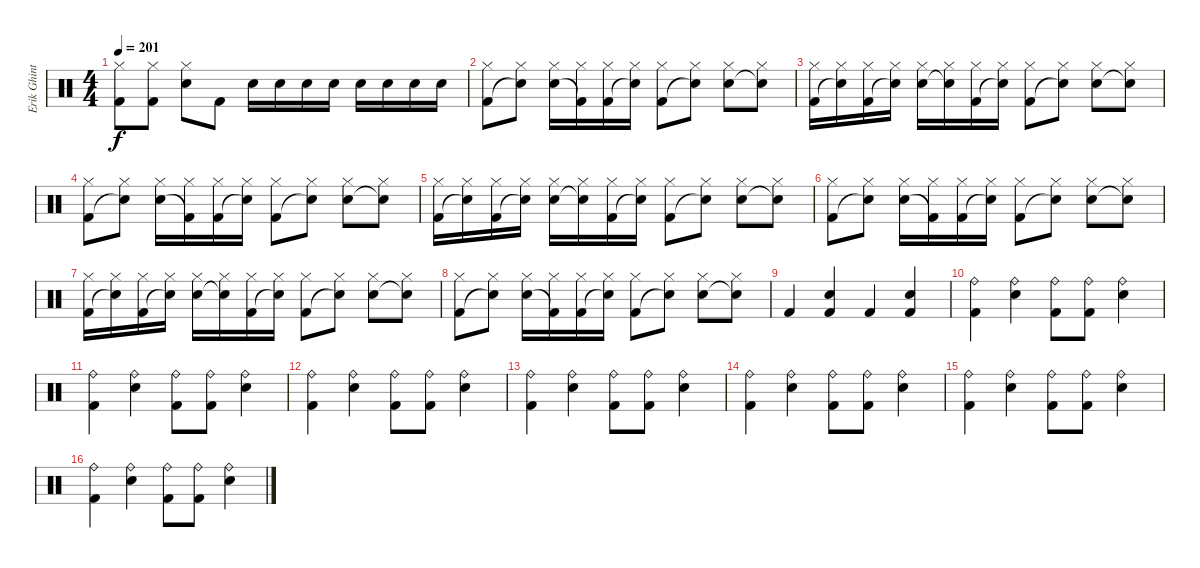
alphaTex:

\track ("Erik Ghint" "Erik Ghint") {instrument percussion}
\staff {score}
\articulation defaults
\ts (4 4)
\tempo 201
\clef neutral
\ks c
("Hi-Hat (closed)" "Kick (hit) 2").8{dy f} ("Hi-Hat (closed)" "Kick (hit) 2").8 ("Hi-Hat (closed)" "Snare (hit) 2").8 "Kick (hit) 2".8 "Snare (hit) 2".16 "Snare (hit) 2".16 "Snare (hit) 2".16 "Snare (hit) 2".16 "Snare (hit) 2".16 "Snare (hit) 2".16 "Snare (hit) 2".16 "Snare (hit) 2".16 |
("Hi-Hat (closed)" "Kick (hit) 2").8 ("Hi-Hat (closed)" "Snare (hit) 2"{t}).8 ("Hi-Hat (closed)" "Snare (hit) 2").16 ("Hi-Hat (closed)" "Kick (hit) 2"{t}).16 ("Hi-Hat (closed)" "Kick (hit) 2").16 ("Hi-Hat (closed)" "Snare (hit)"{t}).16 ("Hi-Hat (closed)" "Kick (hit) 2").8 ("Hi-Hat (closed)" "Snare (hit)"{t}).8 ("Hi-Hat (closed)" "Snare (hit) 2").8 ("Hi-Hat (closed)" "Snare (hit)"{t}).8 |
("Hi-Hat (closed)" "Kick (hit) 2").16 ("Hi-Hat (closed)" "Snare (hit)"{t}).16 ("Hi-Hat (closed)" "Kick (hit) 2").16 ("Hi-Hat (closed)" "Snare (hit)"{t}).16 ("Hi-Hat (closed)" "Snare (hit) 2").16 ("Hi-Hat (closed)" "Snare (hit)"{t}).16 ("Hi-Hat (closed)" "Kick (hit) 2").16 ("Hi-Hat (closed)" "Snare (hit)"{t}).16 ("Hi-Hat (closed)" "Kick (hit) 2").8 ("Hi-Hat (closed)" "Snare (hit)"{t}).8 ("Hi-Hat (closed)" "Snare (hit) 2").8 ("Hi-Hat (closed)" "Snare (hit)"{t}).8 |
("Hi-Hat (closed)" "Kick (hit) 2").8 ("Hi-Hat (closed)" "Snare (hit) 2"{t}).8 ("Hi-Hat (closed)" "Snare (hit) 2").16 ("Hi-Hat (closed)" "Kick (hit) 2"{t}).16 ("Hi-Hat (closed)" "Kick (hit) 2").16 ("Hi-Hat (closed)" "Snare (hit)"{t}).16 ("Hi-Hat (closed)" "Kick (hit) 2").8 ("Hi-Hat (closed)" "Snare (hit)"{t}).8 ("Hi-Hat (closed)" "Snare (hit) 2").8 ("Hi-Hat (closed)" "Snare (hit)"{t}).8 |
("Hi-Hat (closed)" "Kick (hit) 2").16 ("Hi-Hat (closed)" "Snare (hit)"{t}).16 ("Hi-Hat (closed)" "Kick (hit) 2").16 ("Hi-Hat (closed)" "Snare (hit)"{t}).16 ("Hi-Hat (closed)" "Snare (hit) 2").16 ("Hi-Hat (closed)" "Snare (hit)"{t}).16 ("Hi-Hat (closed)" "Kick (hit) 2").16 ("Hi-Hat (closed)" "Snare (hit)"{t}).16 ("Hi-Hat (closed)" "Kick (hit) 2").8 ("Hi-Hat (closed)" "Snare (hit)"{t}).8 ("Hi-Hat (closed)" "Snare (hit) 2").8 ("Hi-Hat (closed)" "Snare (hit)"{t}).8 |
("Hi-Hat (closed)" "Kick (hit) 2").8 ("Hi-Hat (closed)" "Snare (hit) 2"{t}).8 ("Hi-Hat (closed)" "Snare (hit) 2").16 ("Hi-Hat (closed)" "Kick (hit) 2"{t}).16 ("Hi-Hat (closed)" "Kick (hit) 2").16 ("Hi-Hat (closed)" "Snare (hit)"{t}).16 ("Hi-Hat (closed)" "Kick (hit) 2").8 ("Hi-Hat (closed)" "Snare (hit)"{t}).8 ("Hi-Hat (closed)" "Snare (hit) 2").8 ("Hi-Hat (closed)" "Snare (hit)"{t}).8 |
("Hi-Hat (closed)" "Kick (hit) 2").16 ("Hi-Hat (closed)" "Snare (hit)"{t}).16 ("Hi-Hat (closed)" "Kick (hit) 2").16 ("Hi-Hat (closed)" "Snare (hit)"{t}).16 ("Hi-Hat (closed)" "Snare (hit) 2").16 ("Hi-Hat (closed)" "Snare (hit)"{t}).16 ("Hi-Hat (closed)" "Kick (hit) 2").16 ("Hi-Hat (closed)" "Snare (hit)"{t}).16 ("Hi-Hat (closed)" "Kick (hit) 2").8 ("Hi-Hat (closed)" "Snare (hit)"{t}).8 ("Hi-Hat (closed)" "Snare (hit) 2").8 ("Hi-Hat (closed)" "Snare (hit)"{t}).8 |
("Hi-Hat (closed)" "Kick (hit) 2").8 ("Hi-Hat (closed)" "Snare (hit) 2"{t}).8 ("Hi-Hat (closed)" "Snare (hit) 2").16 ("Hi-Hat (closed)" "Kick (hit) 2"{t}).16 ("Hi-Hat (closed)" "Kick (hit) 2").16 ("Hi-Hat (closed)" "Snare (hit)"{t}).16 ("Hi-Hat (closed)" "Kick (hit) 2").8 ("Hi-Hat (closed)" "Snare (hit)"{t}).8 ("Hi-Hat (closed)" "Snare (hit) 2").8 ("Hi-Hat (closed)" "Snare (hit)"{t}).8 |
"Kick (hit) 2".4 ("Snare (hit) 2" "Kick (hit) 2").4 "Kick (hit) 2".4 ("Snare (hit) 2" "Kick (hit) 2").4 |
("Ride (bell)" "Kick (hit) 2").4 ("Ride (bell)" "Snare (hit) 2").4 ("Ride (bell)" "Kick (hit) 2").8 ("Ride (bell)" "Kick (hit) 2").8 ("Ride (bell)" "Snare (hit) 2").4 |
("Ride (bell)" "Kick (hit) 2").4 ("Ride (bell)" "Snare (hit) 2").4 ("Ride (bell)" "Kick (hit) 2").8 ("Ride (bell)" "Kick (hit) 2").8 ("Ride (bell)" "Snare (hit) 2").4 |
("Ride (bell)" "Kick (hit) 2").4 ("Ride (bell)" "Snare (hit) 2").4 ("Ride (bell)" "Kick (hit) 2").8 ("Ride (bell)" "Kick (hit) 2").8 ("Ride (bell)" "Snare (hit) 2").4 |
("Ride (bell)" "Kick (hit) 2").4 ("Ride (bell)" "Snare (hit) 2").4 ("Ride (bell)" "Kick (hit) 2").8 ("Ride (bell)" "Kick (hit) 2").8 ("Ride (bell)" "Snare (hit) 2").4 |
("Ride (bell)" "Kick (hit) 2").4 ("Ride (bell)" "Snare (hit) 2").4 ("Ride (bell)" "Kick (hit) 2").8 ("Ride (bell)" "Kick (hit) 2").8 ("Ride (bell)" "Snare (hit) 2").4 |
("Ride (bell)" "Kick (hit) 2").4 ("Ride (bell)" "Snare (hit) 2").4 ("Ride (bell)" "Kick (hit) 2").8 ("Ride (bell)" "Kick (hit) 2").8 ("Ride (bell)" "Snare (hit) 2").4 |
("Ride (bell)" "Kick (hit) 2").4 ("Ride (bell)" "Snare (hit) 2").4 ("Ride (bell)" "Kick (hit) 2").8 ("Ride (bell)" "Kick (hit) 2").8 ("Ride (bell)" "Snare (hit) 2").4
